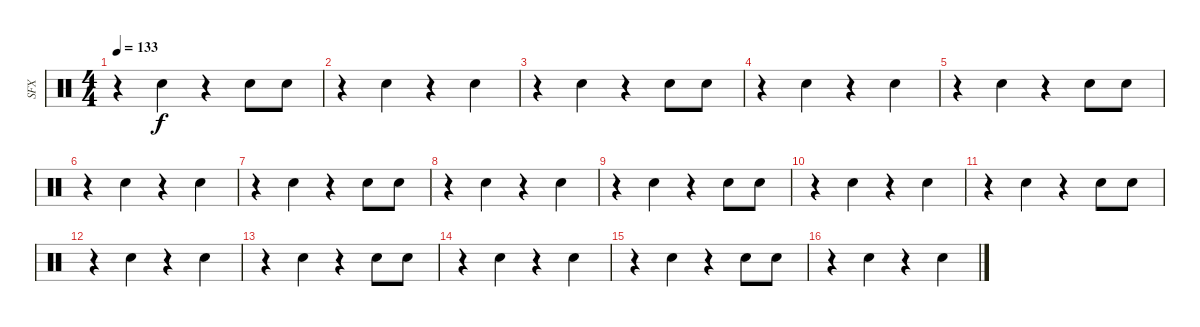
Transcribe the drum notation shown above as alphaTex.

\track ("SFX" "SFX") {instrument percussion}
\staff {score}
\articulation defaults
\ts (4 4)
\tempo 133
\clef neutral
\ks c
r.4{dy f} "Hand Clap (hit)".4 r.4 "Hand Clap (hit)".8 "Hand Clap (hit)".8 |
r.4 "Hand Clap (hit)".4 r.4 "Hand Clap (hit)".4 |
r.4 "Hand Clap (hit)".4 r.4 "Hand Clap (hit)".8 "Hand Clap (hit)".8 |
r.4 "Hand Clap (hit)".4 r.4 "Hand Clap (hit)".4 |
r.4 "Hand Clap (hit)".4 r.4 "Hand Clap (hit)".8 "Hand Clap (hit)".8 |
r.4 "Hand Clap (hit)".4 r.4 "Hand Clap (hit)".4 |
r.4 "Hand Clap (hit)".4 r.4 "Hand Clap (hit)".8 "Hand Clap (hit)".8 |
r.4 "Hand Clap (hit)".4 r.4 "Hand Clap (hit)".4 |
r.4 "Hand Clap (hit)".4 r.4 "Hand Clap (hit)".8 "Hand Clap (hit)".8 |
r.4 "Hand Clap (hit)".4 r.4 "Hand Clap (hit)".4 |
r.4 "Hand Clap (hit)".4 r.4 "Hand Clap (hit)".8 "Hand Clap (hit)".8 |
r.4 "Hand Clap (hit)".4 r.4 "Hand Clap (hit)".4 |
r.4 "Hand Clap (hit)".4 r.4 "Hand Clap (hit)".8 "Hand Clap (hit)".8 |
r.4 "Hand Clap (hit)".4 r.4 "Hand Clap (hit)".4 |
r.4 "Hand Clap (hit)".4 r.4 "Hand Clap (hit)".8 "Hand Clap (hit)".8 |
r.4 "Hand Clap (hit)".4 r.4 "Hand Clap (hit)".4
